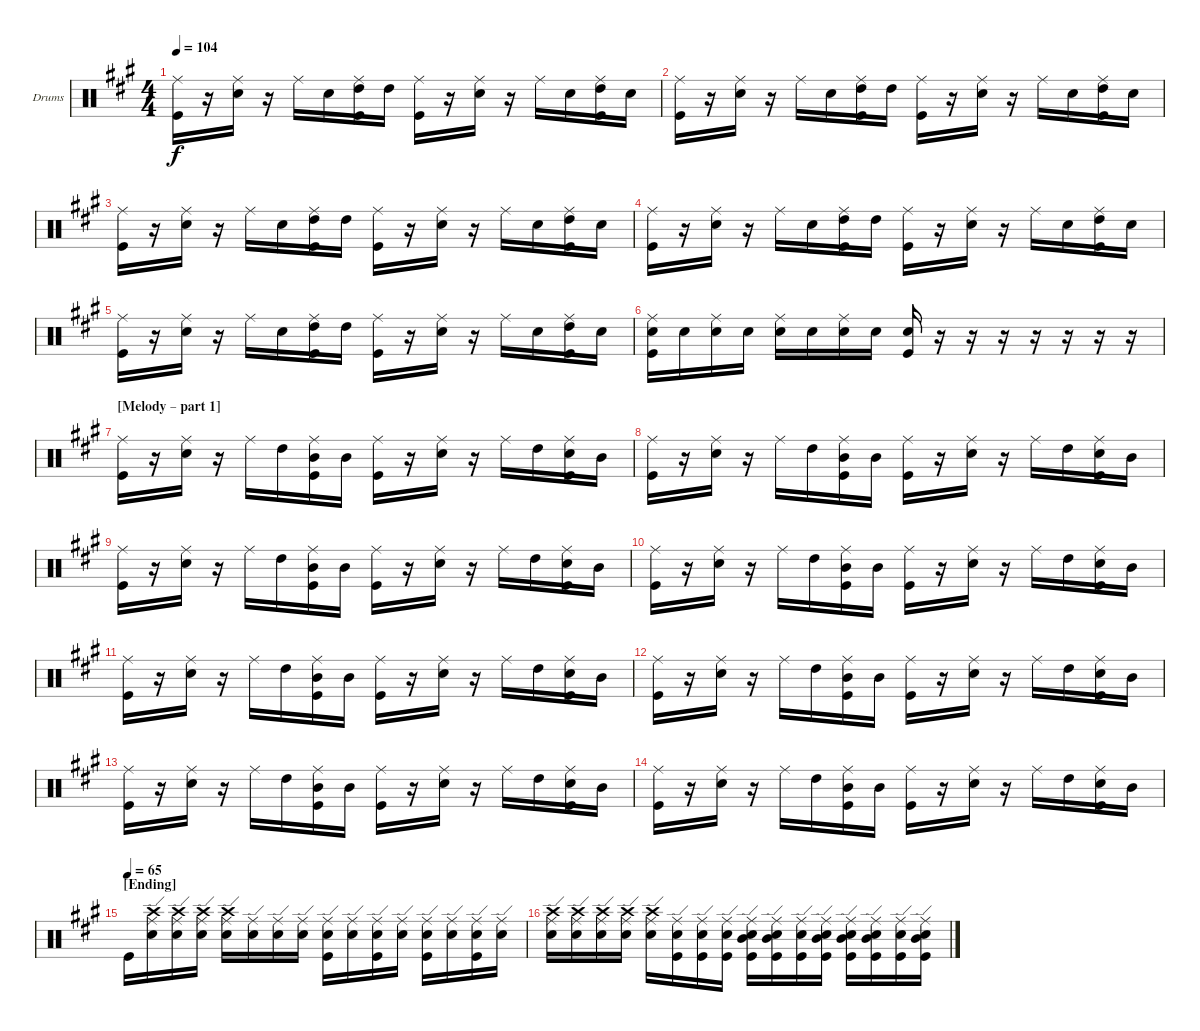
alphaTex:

\bracketExtendMode groupsimilarinstruments
\firstSystemTrackNameOrientation horizontal
\otherSystemsTrackNameOrientation horizontal
\track ("Drumkit" "Drums") {instrument percussion}
\staff {score}
\articulation defaults
\ts (4 4)
\tempo 104
\clef neutral
\ks a
("Ride (middle)" "Kick (hit)").16{dy f} r.16 ("Ride (middle)" "Snare (hit) 2").16 r.16 "Ride (middle)".16 "Snare (hit) 2".16 ("Ride (middle)" "High Tom (hit)" "Kick (hit)").16 "High Tom (hit)".16 ("Ride (middle)" "Kick (hit)").16 r.16 ("Ride (middle)" "Snare (hit) 2").16 r.16 "Ride (middle)".16 "Snare (hit) 2".16 ("Ride (middle)" "High Tom (hit)" "Kick (hit)").16 "Snare (hit) 2".16 |
("Ride (middle)" "Kick (hit)").16 r.16 ("Ride (middle)" "Snare (hit) 2").16 r.16 "Ride (middle)".16 "Snare (hit) 2".16 ("Ride (middle)" "High Tom (hit)" "Kick (hit)").16 "High Tom (hit)".16 ("Ride (middle)" "Kick (hit)").16 r.16 ("Ride (middle)" "Snare (hit) 2").16 r.16 "Ride (middle)".16 "Snare (hit) 2".16 ("Ride (middle)" "High Tom (hit)" "Kick (hit)").16 "Snare (hit) 2".16 |
("Ride (middle)" "Kick (hit)").16 r.16 ("Ride (middle)" "Snare (hit) 2").16 r.16 "Ride (middle)".16 "Snare (hit) 2".16 ("Ride (middle)" "High Tom (hit)" "Kick (hit)").16 "High Tom (hit)".16 ("Ride (middle)" "Kick (hit)").16 r.16 ("Ride (middle)" "Snare (hit) 2").16 r.16 "Ride (middle)".16 "Snare (hit) 2".16 ("Ride (middle)" "High Tom (hit)" "Kick (hit)").16 "Snare (hit) 2".16 |
("Ride (middle)" "Kick (hit)").16 r.16 ("Ride (middle)" "Snare (hit) 2").16 r.16 "Ride (middle)".16 "Snare (hit) 2".16 ("Ride (middle)" "High Tom (hit)" "Kick (hit)").16 "High Tom (hit)".16 ("Ride (middle)" "Kick (hit)").16 r.16 ("Ride (middle)" "Snare (hit) 2").16 r.16 "Ride (middle)".16 "Snare (hit) 2".16 ("Ride (middle)" "High Tom (hit)" "Kick (hit)").16 "Snare (hit) 2".16 |
("Ride (middle)" "Kick (hit)").16 r.16 ("Ride (middle)" "Snare (hit) 2").16 r.16 "Ride (middle)".16 "Snare (hit) 2".16 ("Ride (middle)" "High Tom (hit)" "Kick (hit)").16 "High Tom (hit)".16 ("Ride (middle)" "Kick (hit)").16 r.16 ("Ride (middle)" "Snare (hit) 2").16 r.16 "Ride (middle)".16 "Snare (hit) 2".16 ("Ride (middle)" "High Tom (hit)" "Kick (hit)").16 "Snare (hit) 2".16 |
("Ride (middle)" "Snare (hit) 2" "Kick (hit)").16 "Snare (hit) 2".16 ("Ride (middle)" "Snare (hit) 2").16 "Snare (hit) 2".16 ("Ride (middle)" "Snare (hit) 2").16 "Snare (hit) 2".16 ("Ride (middle)" "Snare (hit) 2").16 "Snare (hit) 2".16 ("Snare (hit) 2" "Kick (hit)").16 r.16 r.16 r.16 r.16 r.16 r.16 r.16 |
\section ("" "[Melody – part 1] ")
("Ride (middle)" "Kick (hit)").16 r.16 ("Ride (middle)" "Snare (hit) 2").16 r.16 "Ride (middle)".16 "High Tom (hit)".16 ("Ride (middle)" "Mid Tom (hit)" "Kick (hit)").16 "Mid Tom (hit)".16 ("Ride (middle)" "Kick (hit)").16 r.16 ("Ride (middle)" "Snare (hit) 2").16 r.16 "Ride (middle)".16 "High Tom (hit)".16 ("Ride (middle)" "Snare (hit) 2" "Kick (hit)").16 "Mid Tom (hit)".16 |
("Ride (middle)" "Kick (hit)").16 r.16 ("Ride (middle)" "Snare (hit) 2").16 r.16 "Ride (middle)".16 "High Tom (hit)".16 ("Ride (middle)" "Mid Tom (hit)" "Kick (hit)").16 "Mid Tom (hit)".16 ("Ride (middle)" "Kick (hit)").16 r.16 ("Ride (middle)" "Snare (hit) 2").16 r.16 "Ride (middle)".16 "High Tom (hit)".16 ("Ride (middle)" "Snare (hit) 2" "Kick (hit)").16 "Mid Tom (hit)".16 |
("Ride (middle)" "Kick (hit)").16 r.16 ("Ride (middle)" "Snare (hit) 2").16 r.16 "Ride (middle)".16 "High Tom (hit)".16 ("Ride (middle)" "Mid Tom (hit)" "Kick (hit)").16 "Mid Tom (hit)".16 ("Ride (middle)" "Kick (hit)").16 r.16 ("Ride (middle)" "Snare (hit) 2").16 r.16 "Ride (middle)".16 "High Tom (hit)".16 ("Ride (middle)" "Snare (hit) 2" "Kick (hit)").16 "Mid Tom (hit)".16 |
("Ride (middle)" "Kick (hit)").16 r.16 ("Ride (middle)" "Snare (hit) 2").16 r.16 "Ride (middle)".16 "High Tom (hit)".16 ("Ride (middle)" "Mid Tom (hit)" "Kick (hit)").16 "Mid Tom (hit)".16 ("Ride (middle)" "Kick (hit)").16 r.16 ("Ride (middle)" "Snare (hit) 2").16 r.16 "Ride (middle)".16 "High Tom (hit)".16 ("Ride (middle)" "Snare (hit) 2" "Kick (hit)").16 "Mid Tom (hit)".16 |
("Ride (middle)" "Kick (hit)").16 r.16 ("Ride (middle)" "Snare (hit) 2").16 r.16 "Ride (middle)".16 "High Tom (hit)".16 ("Ride (middle)" "Mid Tom (hit)" "Kick (hit)").16 "Mid Tom (hit)".16 ("Ride (middle)" "Kick (hit)").16 r.16 ("Ride (middle)" "Snare (hit) 2").16 r.16 "Ride (middle)".16 "High Tom (hit)".16 ("Ride (middle)" "Snare (hit) 2" "Kick (hit)").16 "Mid Tom (hit)".16 |
("Ride (middle)" "Kick (hit)").16 r.16 ("Ride (middle)" "Snare (hit) 2").16 r.16 "Ride (middle)".16 "High Tom (hit)".16 ("Ride (middle)" "Mid Tom (hit)" "Kick (hit)").16 "Mid Tom (hit)".16 ("Ride (middle)" "Kick (hit)").16 r.16 ("Ride (middle)" "Snare (hit) 2").16 r.16 "Ride (middle)".16 "High Tom (hit)".16 ("Ride (middle)" "Snare (hit) 2" "Kick (hit)").16 "Mid Tom (hit)".16 |
("Ride (middle)" "Kick (hit)").16 r.16 ("Ride (middle)" "Snare (hit) 2").16 r.16 "Ride (middle)".16 "High Tom (hit)".16 ("Ride (middle)" "Mid Tom (hit)" "Kick (hit)").16 "Mid Tom (hit)".16 ("Ride (middle)" "Kick (hit)").16 r.16 ("Ride (middle)" "Snare (hit) 2").16 r.16 "Ride (middle)".16 "High Tom (hit)".16 ("Ride (middle)" "Snare (hit) 2" "Kick (hit)").16 "Mid Tom (hit)".16 |
("Ride (middle)" "Kick (hit)").16 r.16 ("Ride (middle)" "Snare (hit) 2").16 r.16 "Ride (middle)".16 "High Tom (hit)".16 ("Ride (middle)" "Mid Tom (hit)" "Kick (hit)").16 "Mid Tom (hit)".16 ("Ride (middle)" "Kick (hit)").16 r.16 ("Ride (middle)" "Snare (hit) 2").16 r.16 "Ride (middle)".16 "High Tom (hit)".16 ("Ride (middle)" "Snare (hit) 2" "Kick (hit)").16 "Mid Tom (hit)".16 |
\section ("" "[Ending]")
\tempo (65)
"Kick (hit)".16 ("Ride (edge)" "Crash high (hit)" "Snare (hit) 2").16 ("Ride (edge)" "Crash high (hit)" "Snare (hit) 2").16 ("Ride (edge)" "Crash high (hit)" "Snare (hit) 2").16 ("Ride (edge)" "Crash high (hit)" "Snare (hit) 2").16 ("Ride (edge)" "Snare (hit) 2").16 ("Ride (edge)" "Snare (hit) 2").16 ("Ride (edge)" "Snare (hit) 2").16 ("Ride (edge)" "Snare (hit) 2" "Kick (hit)").16 ("Ride (edge)" "Snare (hit) 2").16 ("Ride (edge)" "Snare (hit) 2" "Kick (hit)").16 ("Ride (edge)" "Snare (hit) 2").16 ("Ride (edge)" "Snare (hit) 2" "Kick (hit)").16 ("Ride (edge)" "Snare (hit) 2").16 ("Ride (edge)" "Snare (hit) 2" "Kick (hit)").16 ("Ride (edge)" "Snare (hit) 2").16 |
("Ride (edge)" "Crash high (hit)" "Snare (hit) 2").16 ("Ride (edge)" "Crash high (hit)" "Snare (hit) 2").16 ("Ride (edge)" "Crash high (hit)" "Snare (hit) 2").16 ("Ride (edge)" "Crash high (hit)" "Snare (hit) 2").16 ("Ride (edge)" "Crash high (hit)" "Snare (hit) 2").16 ("Ride (edge)" "Snare (hit) 2" "Kick (hit)").16 ("Ride (edge)" "Snare (hit) 2" "Kick (hit)").16 ("Ride (edge)" "Snare (hit) 2" "Kick (hit)").16 ("Ride (edge)" "Mid Tom (hit)" "Snare (hit) 2" "Kick (hit)").16 ("Ride (edge)" "Mid Tom (hit)" "Snare (hit) 2" "Kick (hit)").16 ("Ride (edge)" "Snare (hit) 2" "Kick (hit)").16 ("Ride (edge)" "Mid Tom (hit)" "Snare (hit) 2" "Kick (hit)").16 ("Ride (edge)" "Mid Tom (hit)" "Snare (hit) 2" "Kick (hit)").16 ("Ride (edge)" "Mid Tom (hit)" "Snare (hit) 2" "Kick (hit)").16 ("Ride (edge)" "Snare (hit) 2" "Kick (hit)").16 ("Ride (edge)" "Mid Tom (hit)" "Snare (hit) 2" "Kick (hit)").16
